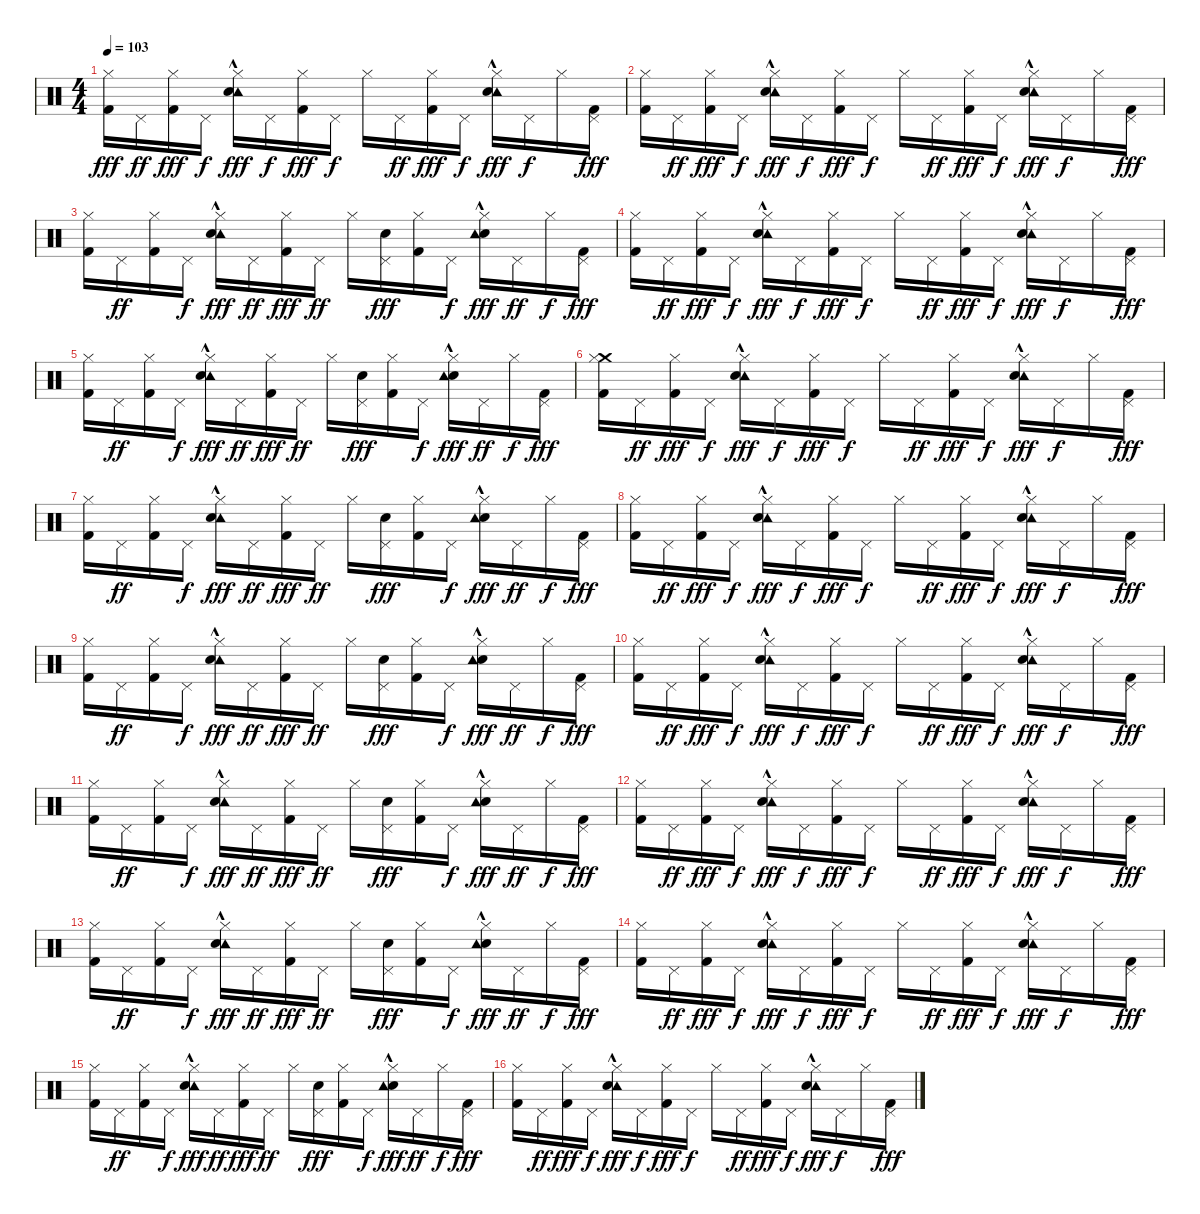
\track "" {instrument percussion}
\staff {score}
\articulation defaults
\ts (4 4)
\tempo 103
\clef neutral
\ks c
("Hi-Hat (closed)" "Kick (hit) 2").16{dy fff} "Pedal Hi-Hat (hit)".16{dy ff} ("Hi-Hat (closed)" "Kick (hit) 2").16{dy fff} "Pedal Hi-Hat (hit)".16{dy f} ("Tambourine (hit)"{hac} "Hi-Hat (closed)" "Electric Snare (hit)").16{dy fff} "Pedal Hi-Hat (hit)".16{dy f} ("Kick (hit) 2" "Hi-Hat (closed)").16{dy fff} "Pedal Hi-Hat (hit)".16{dy f} "Hi-Hat (closed)".16 "Pedal Hi-Hat (hit)".16{dy ff} ("Kick (hit) 2" "Hi-Hat (closed)").16{dy fff} "Pedal Hi-Hat (hit)".16{dy f} ("Tambourine (hit)"{hac} "Electric Snare (hit)" "Hi-Hat (closed)").16{dy fff} "Pedal Hi-Hat (hit)".16{dy f} "Hi-Hat (closed)".16 ("Kick (hit) 2" "Pedal Hi-Hat (hit)").16{dy fff} |
("Hi-Hat (closed)" "Kick (hit) 2").16 "Pedal Hi-Hat (hit)".16{dy ff} ("Hi-Hat (closed)" "Kick (hit) 2").16{dy fff} "Pedal Hi-Hat (hit)".16{dy f} ("Tambourine (hit)"{hac} "Hi-Hat (closed)" "Electric Snare (hit)").16{dy fff} "Pedal Hi-Hat (hit)".16{dy f} ("Kick (hit) 2" "Hi-Hat (closed)").16{dy fff} "Pedal Hi-Hat (hit)".16{dy f} "Hi-Hat (closed)".16 "Pedal Hi-Hat (hit)".16{dy ff} ("Kick (hit) 2" "Hi-Hat (closed)").16{dy fff} "Pedal Hi-Hat (hit)".16{dy f} ("Tambourine (hit)"{hac} "Electric Snare (hit)" "Hi-Hat (closed)").16{dy fff} "Pedal Hi-Hat (hit)".16{dy f} "Hi-Hat (closed)".16 ("Kick (hit) 2" "Pedal Hi-Hat (hit)").16{dy fff} |
("Kick (hit) 2" "Hi-Hat (closed)").16 "Pedal Hi-Hat (hit)".16{dy ff} ("Kick (hit) 2" "Hi-Hat (closed)").16 "Pedal Hi-Hat (hit)".16{dy f} ("Tambourine (hit)"{hac} "Hi-Hat (closed)" "Electric Snare (hit)").16{dy fff} "Pedal Hi-Hat (hit)".16{dy ff} ("Hi-Hat (closed)" "Kick (hit) 2").16{dy fff} "Pedal Hi-Hat (hit)".16{dy ff} "Hi-Hat (closed)".16 ("Pedal Hi-Hat (hit)" "Electric Snare (hit)").16{dy fff} ("Kick (hit) 2" "Hi-Hat (closed)").16 "Pedal Hi-Hat (hit)".16{dy f} ("Electric Snare (hit)" "Hi-Hat (closed)" "Tambourine (hit)"{hac}).16{dy fff} "Pedal Hi-Hat (hit)".16{dy ff} "Hi-Hat (closed)".16{dy f} ("Pedal Hi-Hat (hit)" "Kick (hit) 2").16{dy fff} |
("Hi-Hat (closed)" "Kick (hit) 2").16 "Pedal Hi-Hat (hit)".16{dy ff} ("Hi-Hat (closed)" "Kick (hit) 2").16{dy fff} "Pedal Hi-Hat (hit)".16{dy f} ("Tambourine (hit)"{hac} "Hi-Hat (closed)" "Electric Snare (hit)").16{dy fff} "Pedal Hi-Hat (hit)".16{dy f} ("Kick (hit) 2" "Hi-Hat (closed)").16{dy fff} "Pedal Hi-Hat (hit)".16{dy f} "Hi-Hat (closed)".16 "Pedal Hi-Hat (hit)".16{dy ff} ("Kick (hit) 2" "Hi-Hat (closed)").16{dy fff} "Pedal Hi-Hat (hit)".16{dy f} ("Tambourine (hit)"{hac} "Electric Snare (hit)" "Hi-Hat (closed)").16{dy fff} "Pedal Hi-Hat (hit)".16{dy f} "Hi-Hat (closed)".16 ("Kick (hit) 2" "Pedal Hi-Hat (hit)").16{dy fff} |
("Kick (hit) 2" "Hi-Hat (closed)").16 "Pedal Hi-Hat (hit)".16{dy ff} ("Kick (hit) 2" "Hi-Hat (closed)").16 "Pedal Hi-Hat (hit)".16{dy f} ("Tambourine (hit)"{hac} "Hi-Hat (closed)" "Electric Snare (hit)").16{dy fff} "Pedal Hi-Hat (hit)".16{dy ff} ("Hi-Hat (closed)" "Kick (hit) 2").16{dy fff} "Pedal Hi-Hat (hit)".16{dy ff} "Hi-Hat (closed)".16 ("Pedal Hi-Hat (hit)" "Electric Snare (hit)").16{dy fff} ("Kick (hit) 2" "Hi-Hat (closed)").16 "Pedal Hi-Hat (hit)".16{dy f} ("Electric Snare (hit)" "Hi-Hat (closed)" "Tambourine (hit)"{hac}).16{dy fff} "Pedal Hi-Hat (hit)".16{dy ff} "Hi-Hat (closed)".16{dy f} ("Pedal Hi-Hat (hit)" "Kick (hit) 2").16{dy fff} |
("Crash medium (hit)" "Hi-Hat (closed)" "Kick (hit) 2").16 "Pedal Hi-Hat (hit)".16{dy ff} ("Hi-Hat (closed)" "Kick (hit) 2").16{dy fff} "Pedal Hi-Hat (hit)".16{dy f} ("Tambourine (hit)"{hac} "Hi-Hat (closed)" "Electric Snare (hit)").16{dy fff} "Pedal Hi-Hat (hit)".16{dy f} ("Kick (hit) 2" "Hi-Hat (closed)").16{dy fff} "Pedal Hi-Hat (hit)".16{dy f} "Hi-Hat (closed)".16 "Pedal Hi-Hat (hit)".16{dy ff} ("Kick (hit) 2" "Hi-Hat (closed)").16{dy fff} "Pedal Hi-Hat (hit)".16{dy f} ("Tambourine (hit)"{hac} "Electric Snare (hit)" "Hi-Hat (closed)").16{dy fff} "Pedal Hi-Hat (hit)".16{dy f} "Hi-Hat (closed)".16 ("Kick (hit) 2" "Pedal Hi-Hat (hit)").16{dy fff} |
("Kick (hit) 2" "Hi-Hat (closed)").16 "Pedal Hi-Hat (hit)".16{dy ff} ("Kick (hit) 2" "Hi-Hat (closed)").16 "Pedal Hi-Hat (hit)".16{dy f} ("Tambourine (hit)"{hac} "Hi-Hat (closed)" "Electric Snare (hit)").16{dy fff} "Pedal Hi-Hat (hit)".16{dy ff} ("Hi-Hat (closed)" "Kick (hit) 2").16{dy fff} "Pedal Hi-Hat (hit)".16{dy ff} "Hi-Hat (closed)".16 ("Pedal Hi-Hat (hit)" "Electric Snare (hit)").16{dy fff} ("Kick (hit) 2" "Hi-Hat (closed)").16 "Pedal Hi-Hat (hit)".16{dy f} ("Electric Snare (hit)" "Hi-Hat (closed)" "Tambourine (hit)"{hac}).16{dy fff} "Pedal Hi-Hat (hit)".16{dy ff} "Hi-Hat (closed)".16{dy f} ("Pedal Hi-Hat (hit)" "Kick (hit) 2").16{dy fff} |
("Hi-Hat (closed)" "Kick (hit) 2").16 "Pedal Hi-Hat (hit)".16{dy ff} ("Hi-Hat (closed)" "Kick (hit) 2").16{dy fff} "Pedal Hi-Hat (hit)".16{dy f} ("Tambourine (hit)"{hac} "Hi-Hat (closed)" "Electric Snare (hit)").16{dy fff} "Pedal Hi-Hat (hit)".16{dy f} ("Kick (hit) 2" "Hi-Hat (closed)").16{dy fff} "Pedal Hi-Hat (hit)".16{dy f} "Hi-Hat (closed)".16 "Pedal Hi-Hat (hit)".16{dy ff} ("Kick (hit) 2" "Hi-Hat (closed)").16{dy fff} "Pedal Hi-Hat (hit)".16{dy f} ("Tambourine (hit)"{hac} "Electric Snare (hit)" "Hi-Hat (closed)").16{dy fff} "Pedal Hi-Hat (hit)".16{dy f} "Hi-Hat (closed)".16 ("Kick (hit) 2" "Pedal Hi-Hat (hit)").16{dy fff} |
("Kick (hit) 2" "Hi-Hat (closed)").16 "Pedal Hi-Hat (hit)".16{dy ff} ("Kick (hit) 2" "Hi-Hat (closed)").16 "Pedal Hi-Hat (hit)".16{dy f} ("Tambourine (hit)"{hac} "Hi-Hat (closed)" "Electric Snare (hit)").16{dy fff} "Pedal Hi-Hat (hit)".16{dy ff} ("Hi-Hat (closed)" "Kick (hit) 2").16{dy fff} "Pedal Hi-Hat (hit)".16{dy ff} "Hi-Hat (closed)".16 ("Pedal Hi-Hat (hit)" "Electric Snare (hit)").16{dy fff} ("Kick (hit) 2" "Hi-Hat (closed)").16 "Pedal Hi-Hat (hit)".16{dy f} ("Electric Snare (hit)" "Hi-Hat (closed)" "Tambourine (hit)"{hac}).16{dy fff} "Pedal Hi-Hat (hit)".16{dy ff} "Hi-Hat (closed)".16{dy f} ("Pedal Hi-Hat (hit)" "Kick (hit) 2").16{dy fff} |
("Hi-Hat (closed)" "Kick (hit) 2").16 "Pedal Hi-Hat (hit)".16{dy ff} ("Hi-Hat (closed)" "Kick (hit) 2").16{dy fff} "Pedal Hi-Hat (hit)".16{dy f} ("Tambourine (hit)"{hac} "Hi-Hat (closed)" "Electric Snare (hit)").16{dy fff} "Pedal Hi-Hat (hit)".16{dy f} ("Kick (hit) 2" "Hi-Hat (closed)").16{dy fff} "Pedal Hi-Hat (hit)".16{dy f} "Hi-Hat (closed)".16 "Pedal Hi-Hat (hit)".16{dy ff} ("Kick (hit) 2" "Hi-Hat (closed)").16{dy fff} "Pedal Hi-Hat (hit)".16{dy f} ("Tambourine (hit)"{hac} "Electric Snare (hit)" "Hi-Hat (closed)").16{dy fff} "Pedal Hi-Hat (hit)".16{dy f} "Hi-Hat (closed)".16 ("Kick (hit) 2" "Pedal Hi-Hat (hit)").16{dy fff} |
("Kick (hit) 2" "Hi-Hat (closed)").16 "Pedal Hi-Hat (hit)".16{dy ff} ("Kick (hit) 2" "Hi-Hat (closed)").16 "Pedal Hi-Hat (hit)".16{dy f} ("Tambourine (hit)"{hac} "Hi-Hat (closed)" "Electric Snare (hit)").16{dy fff} "Pedal Hi-Hat (hit)".16{dy ff} ("Hi-Hat (closed)" "Kick (hit) 2").16{dy fff} "Pedal Hi-Hat (hit)".16{dy ff} "Hi-Hat (closed)".16 ("Pedal Hi-Hat (hit)" "Electric Snare (hit)").16{dy fff} ("Kick (hit) 2" "Hi-Hat (closed)").16 "Pedal Hi-Hat (hit)".16{dy f} ("Electric Snare (hit)" "Hi-Hat (closed)" "Tambourine (hit)"{hac}).16{dy fff} "Pedal Hi-Hat (hit)".16{dy ff} "Hi-Hat (closed)".16{dy f} ("Pedal Hi-Hat (hit)" "Kick (hit) 2").16{dy fff} |
("Hi-Hat (closed)" "Kick (hit) 2").16 "Pedal Hi-Hat (hit)".16{dy ff} ("Hi-Hat (closed)" "Kick (hit) 2").16{dy fff} "Pedal Hi-Hat (hit)".16{dy f} ("Tambourine (hit)"{hac} "Hi-Hat (closed)" "Electric Snare (hit)").16{dy fff} "Pedal Hi-Hat (hit)".16{dy f} ("Kick (hit) 2" "Hi-Hat (closed)").16{dy fff} "Pedal Hi-Hat (hit)".16{dy f} "Hi-Hat (closed)".16 "Pedal Hi-Hat (hit)".16{dy ff} ("Kick (hit) 2" "Hi-Hat (closed)").16{dy fff} "Pedal Hi-Hat (hit)".16{dy f} ("Tambourine (hit)"{hac} "Electric Snare (hit)" "Hi-Hat (closed)").16{dy fff} "Pedal Hi-Hat (hit)".16{dy f} "Hi-Hat (closed)".16 ("Kick (hit) 2" "Pedal Hi-Hat (hit)").16{dy fff} |
("Kick (hit) 2" "Hi-Hat (closed)").16 "Pedal Hi-Hat (hit)".16{dy ff} ("Kick (hit) 2" "Hi-Hat (closed)").16 "Pedal Hi-Hat (hit)".16{dy f} ("Tambourine (hit)"{hac} "Hi-Hat (closed)" "Electric Snare (hit)").16{dy fff} "Pedal Hi-Hat (hit)".16{dy ff} ("Hi-Hat (closed)" "Kick (hit) 2").16{dy fff} "Pedal Hi-Hat (hit)".16{dy ff} "Hi-Hat (closed)".16 ("Pedal Hi-Hat (hit)" "Electric Snare (hit)").16{dy fff} ("Kick (hit) 2" "Hi-Hat (closed)").16 "Pedal Hi-Hat (hit)".16{dy f} ("Electric Snare (hit)" "Hi-Hat (closed)" "Tambourine (hit)"{hac}).16{dy fff} "Pedal Hi-Hat (hit)".16{dy ff} "Hi-Hat (closed)".16{dy f} ("Pedal Hi-Hat (hit)" "Kick (hit) 2").16{dy fff} |
("Hi-Hat (closed)" "Kick (hit) 2").16 "Pedal Hi-Hat (hit)".16{dy ff} ("Hi-Hat (closed)" "Kick (hit) 2").16{dy fff} "Pedal Hi-Hat (hit)".16{dy f} ("Tambourine (hit)"{hac} "Hi-Hat (closed)" "Electric Snare (hit)").16{dy fff} "Pedal Hi-Hat (hit)".16{dy f} ("Kick (hit) 2" "Hi-Hat (closed)").16{dy fff} "Pedal Hi-Hat (hit)".16{dy f} "Hi-Hat (closed)".16 "Pedal Hi-Hat (hit)".16{dy ff} ("Kick (hit) 2" "Hi-Hat (closed)").16{dy fff} "Pedal Hi-Hat (hit)".16{dy f} ("Tambourine (hit)"{hac} "Electric Snare (hit)" "Hi-Hat (closed)").16{dy fff} "Pedal Hi-Hat (hit)".16{dy f} "Hi-Hat (closed)".16 ("Kick (hit) 2" "Pedal Hi-Hat (hit)").16{dy fff} |
("Kick (hit) 2" "Hi-Hat (closed)").16 "Pedal Hi-Hat (hit)".16{dy ff} ("Kick (hit) 2" "Hi-Hat (closed)").16 "Pedal Hi-Hat (hit)".16{dy f} ("Tambourine (hit)"{hac} "Hi-Hat (closed)" "Electric Snare (hit)").16{dy fff} "Pedal Hi-Hat (hit)".16{dy ff} ("Hi-Hat (closed)" "Kick (hit) 2").16{dy fff} "Pedal Hi-Hat (hit)".16{dy ff} "Hi-Hat (closed)".16 ("Pedal Hi-Hat (hit)" "Electric Snare (hit)").16{dy fff} ("Kick (hit) 2" "Hi-Hat (closed)").16 "Pedal Hi-Hat (hit)".16{dy f} ("Electric Snare (hit)" "Hi-Hat (closed)" "Tambourine (hit)"{hac}).16{dy fff} "Pedal Hi-Hat (hit)".16{dy ff} "Hi-Hat (closed)".16{dy f} ("Pedal Hi-Hat (hit)" "Kick (hit) 2").16{dy fff} |
("Hi-Hat (closed)" "Kick (hit) 2").16 "Pedal Hi-Hat (hit)".16{dy ff} ("Hi-Hat (closed)" "Kick (hit) 2").16{dy fff} "Pedal Hi-Hat (hit)".16{dy f} ("Tambourine (hit)"{hac} "Hi-Hat (closed)" "Electric Snare (hit)").16{dy fff} "Pedal Hi-Hat (hit)".16{dy f} ("Kick (hit) 2" "Hi-Hat (closed)").16{dy fff} "Pedal Hi-Hat (hit)".16{dy f} "Hi-Hat (closed)".16 "Pedal Hi-Hat (hit)".16{dy ff} ("Kick (hit) 2" "Hi-Hat (closed)").16{dy fff} "Pedal Hi-Hat (hit)".16{dy f} ("Tambourine (hit)"{hac} "Electric Snare (hit)" "Hi-Hat (closed)").16{dy fff} "Pedal Hi-Hat (hit)".16{dy f} "Hi-Hat (closed)".16 ("Kick (hit) 2" "Pedal Hi-Hat (hit)").16{dy fff}
